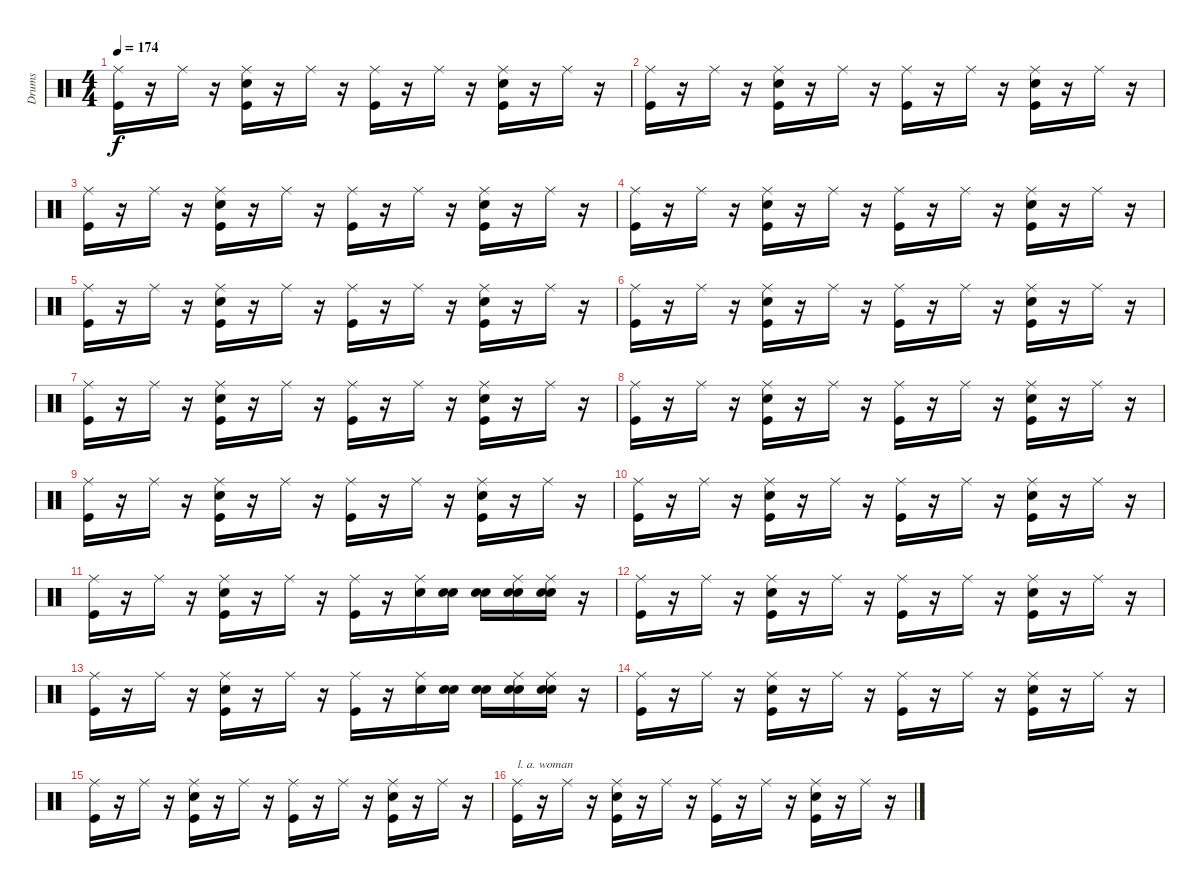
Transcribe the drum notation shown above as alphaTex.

\track ("Drums" "Drums") {instrument percussion}
\staff {score}
\articulation defaults
\ts (4 4)
\tempo 174
\clef neutral
\ks c
("Kick (hit)" "Ride (middle)").16{dy f} r.16 "Ride (middle)".16 r.16 ("Kick (hit)" "Snare (hit) 2" "Ride (middle)").16 r.16 "Ride (middle)".16 r.16 ("Kick (hit)" "Ride (middle)").16 r.16 "Ride (middle)".16 r.16 ("Kick (hit)" "Snare (hit) 2" "Ride (middle)").16 r.16 "Ride (middle)".16 r.16 |
("Kick (hit)" "Ride (middle)").16 r.16 "Ride (middle)".16 r.16 ("Kick (hit)" "Snare (hit) 2" "Ride (middle)").16 r.16 "Ride (middle)".16 r.16 ("Kick (hit)" "Ride (middle)").16 r.16 "Ride (middle)".16 r.16 ("Kick (hit)" "Snare (hit) 2" "Ride (middle)").16 r.16 "Ride (middle)".16 r.16 |
("Kick (hit)" "Ride (middle)").16 r.16 "Ride (middle)".16 r.16 ("Kick (hit)" "Snare (hit) 2" "Ride (middle)").16 r.16 "Ride (middle)".16 r.16 ("Kick (hit)" "Ride (middle)").16 r.16 "Ride (middle)".16 r.16 ("Kick (hit)" "Snare (hit) 2" "Ride (middle)").16 r.16 "Ride (middle)".16 r.16 |
("Kick (hit)" "Ride (middle)").16 r.16 "Ride (middle)".16 r.16 ("Kick (hit)" "Snare (hit) 2" "Ride (middle)").16 r.16 "Ride (middle)".16 r.16 ("Kick (hit)" "Ride (middle)").16 r.16 "Ride (middle)".16 r.16 ("Kick (hit)" "Snare (hit) 2" "Ride (middle)").16 r.16 "Ride (middle)".16 r.16 |
("Kick (hit)" "Ride (middle)").16 r.16 "Ride (middle)".16 r.16 ("Kick (hit)" "Snare (hit) 2" "Ride (middle)").16 r.16 "Ride (middle)".16 r.16 ("Kick (hit)" "Ride (middle)").16 r.16 "Ride (middle)".16 r.16 ("Kick (hit)" "Snare (hit) 2" "Ride (middle)").16 r.16 "Ride (middle)".16 r.16 |
("Kick (hit)" "Ride (middle)").16 r.16 "Ride (middle)".16 r.16 ("Kick (hit)" "Snare (hit) 2" "Ride (middle)").16 r.16 "Ride (middle)".16 r.16 ("Kick (hit)" "Ride (middle)").16 r.16 "Ride (middle)".16 r.16 ("Kick (hit)" "Snare (hit) 2" "Ride (middle)").16 r.16 "Ride (middle)".16 r.16 |
("Kick (hit)" "Ride (middle)").16 r.16 "Ride (middle)".16 r.16 ("Kick (hit)" "Snare (hit) 2" "Ride (middle)").16 r.16 "Ride (middle)".16 r.16 ("Kick (hit)" "Ride (middle)").16 r.16 "Ride (middle)".16 r.16 ("Kick (hit)" "Snare (hit) 2" "Ride (middle)").16 r.16 "Ride (middle)".16 r.16 |
("Kick (hit)" "Ride (middle)").16 r.16 "Ride (middle)".16 r.16 ("Kick (hit)" "Snare (hit) 2" "Ride (middle)").16 r.16 "Ride (middle)".16 r.16 ("Kick (hit)" "Ride (middle)").16 r.16 "Ride (middle)".16 r.16 ("Kick (hit)" "Snare (hit) 2" "Ride (middle)").16 r.16 "Ride (middle)".16 r.16 |
("Kick (hit)" "Ride (middle)").16 r.16 "Ride (middle)".16 r.16 ("Kick (hit)" "Snare (hit) 2" "Ride (middle)").16 r.16 "Ride (middle)".16 r.16 ("Kick (hit)" "Ride (middle)").16 r.16 "Ride (middle)".16 r.16 ("Kick (hit)" "Snare (hit) 2" "Ride (middle)").16 r.16 "Ride (middle)".16 r.16 |
("Kick (hit)" "Ride (middle)").16 r.16 "Ride (middle)".16 r.16 ("Kick (hit)" "Snare (hit) 2" "Ride (middle)").16 r.16 "Ride (middle)".16 r.16 ("Kick (hit)" "Ride (middle)").16 r.16 "Ride (middle)".16 r.16 ("Kick (hit)" "Snare (hit) 2" "Ride (middle)").16 r.16 "Ride (middle)".16 r.16 |
("Kick (hit)" "Ride (middle)").16 r.16 "Ride (middle)".16 r.16 ("Kick (hit)" "Snare (hit) 2" "Ride (middle)").16 r.16 "Ride (middle)".16 r.16 ("Kick (hit)" "Ride (middle)").16 r.16 ("Snare (hit) 2" "Ride (middle)").16 ("Snare (hit)" "Snare (hit) 2").16 ("Snare (hit)" "Snare (hit) 2").16 ("Snare (hit)" "Snare (hit) 2" "Ride (middle)").16 ("Snare (hit)" "Snare (hit) 2" "Ride (middle)").16 r.16 |
("Kick (hit)" "Ride (middle)").16 r.16 "Ride (middle)".16 r.16 ("Kick (hit)" "Snare (hit) 2" "Ride (middle)").16 r.16 "Ride (middle)".16 r.16 ("Kick (hit)" "Ride (middle)").16 r.16 "Ride (middle)".16 r.16 ("Snare (hit) 2" "Kick (hit)" "Ride (middle)").16 r.16 "Ride (middle)".16 r.16 |
("Kick (hit)" "Ride (middle)").16 r.16 "Ride (middle)".16 r.16 ("Kick (hit)" "Snare (hit) 2" "Ride (middle)").16 r.16 "Ride (middle)".16 r.16 ("Kick (hit)" "Ride (middle)").16 r.16 ("Snare (hit) 2" "Ride (middle)").16 ("Snare (hit)" "Snare (hit) 2").16 ("Snare (hit)" "Snare (hit) 2").16 ("Snare (hit)" "Snare (hit) 2" "Ride (middle)").16 ("Snare (hit)" "Snare (hit) 2" "Ride (middle)").16 r.16 |
("Kick (hit)" "Ride (middle)").16 r.16 "Ride (middle)".16 r.16 ("Kick (hit)" "Snare (hit) 2" "Ride (middle)").16 r.16 "Ride (middle)".16 r.16 ("Kick (hit)" "Ride (middle)").16 r.16 "Ride (middle)".16 r.16 ("Kick (hit)" "Snare (hit) 2" "Ride (middle)").16 r.16 "Ride (middle)".16 r.16 |
("Kick (hit)" "Ride (middle)").16 r.16 "Ride (middle)".16 r.16 ("Kick (hit)" "Snare (hit) 2" "Ride (middle)").16 r.16 "Ride (middle)".16 r.16 ("Kick (hit)" "Ride (middle)").16 r.16 "Ride (middle)".16 r.16 ("Kick (hit)" "Snare (hit) 2" "Ride (middle)").16 r.16 "Ride (middle)".16 r.16 |
("Kick (hit)" "Ride (middle)").16{txt "l. a. woman"} r.16 "Ride (middle)".16 r.16 ("Kick (hit)" "Snare (hit) 2" "Ride (middle)").16 r.16 "Ride (middle)".16 r.16 ("Kick (hit)" "Ride (middle)").16 r.16 "Ride (middle)".16 r.16 ("Kick (hit)" "Snare (hit) 2" "Ride (middle)").16 r.16 "Ride (middle)".16 r.16
